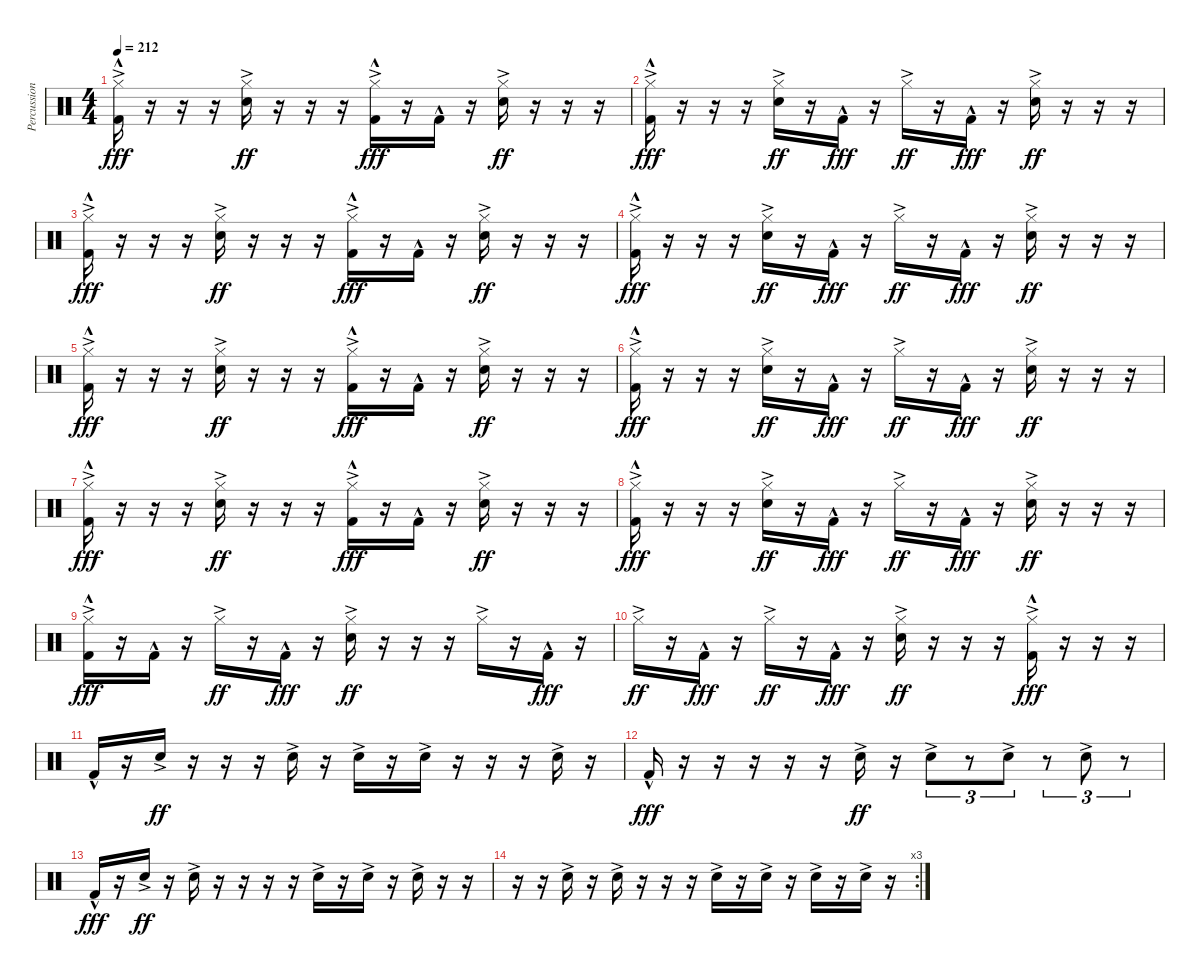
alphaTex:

\track ("Percussion" "Percussion") {instrument percussion}
\staff {score}
\articulation defaults
\ts (4 4)
\tempo 212
\clef neutral
\ks c
("Hi-Hat (closed)"{ac} "Kick (hit) 2"{hac}).16{dy fff} r.16 r.16 r.16 ("Hi-Hat (closed)"{ac} "Snare (hit) 2"{ac}).16{dy ff} r.16 r.16 r.16 ("Hi-Hat (closed)"{ac} "Kick (hit) 2"{hac}).16{dy fff} r.16 "Kick (hit) 2"{hac}.16 r.16 ("Hi-Hat (closed)"{ac} "Snare (hit) 2"{ac}).16{dy ff} r.16 r.16 r.16 |
("Hi-Hat (closed)"{ac} "Kick (hit) 2"{hac}).16{dy fff} r.16 r.16 r.16 ("Hi-Hat (closed)"{ac} "Snare (hit) 2"{ac}).16{dy ff} r.16 "Kick (hit) 2"{hac}.16{dy fff} r.16 "Hi-Hat (closed)"{ac}.16{dy ff} r.16 "Kick (hit) 2"{hac}.16{dy fff} r.16 ("Hi-Hat (closed)"{ac} "Snare (hit) 2"{ac}).16{dy ff} r.16 r.16 r.16 |
("Hi-Hat (closed)"{ac} "Kick (hit) 2"{hac}).16{dy fff} r.16 r.16 r.16 ("Hi-Hat (closed)"{ac} "Snare (hit) 2"{ac}).16{dy ff} r.16 r.16 r.16 ("Hi-Hat (closed)"{ac} "Kick (hit) 2"{hac}).16{dy fff} r.16 "Kick (hit) 2"{hac}.16 r.16 ("Hi-Hat (closed)"{ac} "Snare (hit) 2"{ac}).16{dy ff} r.16 r.16 r.16 |
("Hi-Hat (closed)"{ac} "Kick (hit) 2"{hac}).16{dy fff} r.16 r.16 r.16 ("Hi-Hat (closed)"{ac} "Snare (hit) 2"{ac}).16{dy ff} r.16 "Kick (hit) 2"{hac}.16{dy fff} r.16 "Hi-Hat (closed)"{ac}.16{dy ff} r.16 "Kick (hit) 2"{hac}.16{dy fff} r.16 ("Hi-Hat (closed)"{ac} "Snare (hit) 2"{ac}).16{dy ff} r.16 r.16 r.16 |
("Hi-Hat (closed)"{ac} "Kick (hit) 2"{hac}).16{dy fff} r.16 r.16 r.16 ("Hi-Hat (closed)"{ac} "Snare (hit) 2"{ac}).16{dy ff} r.16 r.16 r.16 ("Hi-Hat (closed)"{ac} "Kick (hit) 2"{hac}).16{dy fff} r.16 "Kick (hit) 2"{hac}.16 r.16 ("Hi-Hat (closed)"{ac} "Snare (hit) 2"{ac}).16{dy ff} r.16 r.16 r.16 |
("Hi-Hat (closed)"{ac} "Kick (hit) 2"{hac}).16{dy fff} r.16 r.16 r.16 ("Hi-Hat (closed)"{ac} "Snare (hit) 2"{ac}).16{dy ff} r.16 "Kick (hit) 2"{hac}.16{dy fff} r.16 "Hi-Hat (closed)"{ac}.16{dy ff} r.16 "Kick (hit) 2"{hac}.16{dy fff} r.16 ("Hi-Hat (closed)"{ac} "Snare (hit) 2"{ac}).16{dy ff} r.16 r.16 r.16 |
("Hi-Hat (closed)"{ac} "Kick (hit) 2"{hac}).16{dy fff} r.16 r.16 r.16 ("Hi-Hat (closed)"{ac} "Snare (hit) 2"{ac}).16{dy ff} r.16 r.16 r.16 ("Hi-Hat (closed)"{ac} "Kick (hit) 2"{hac}).16{dy fff} r.16 "Kick (hit) 2"{hac}.16 r.16 ("Hi-Hat (closed)"{ac} "Snare (hit) 2"{ac}).16{dy ff} r.16 r.16 r.16 |
("Hi-Hat (closed)"{ac} "Kick (hit) 2"{hac}).16{dy fff} r.16 r.16 r.16 ("Hi-Hat (closed)"{ac} "Snare (hit) 2"{ac}).16{dy ff} r.16 "Kick (hit) 2"{hac}.16{dy fff} r.16 "Hi-Hat (closed)"{ac}.16{dy ff} r.16 "Kick (hit) 2"{hac}.16{dy fff} r.16 ("Hi-Hat (closed)"{ac} "Snare (hit) 2"{ac}).16{dy ff} r.16 r.16 r.16 |
("Hi-Hat (closed)"{ac} "Kick (hit) 2"{hac}).16{dy fff} r.16 "Kick (hit) 2"{hac}.16 r.16 "Hi-Hat (closed)"{ac}.16{dy ff} r.16 "Kick (hit) 2"{hac}.16{dy fff} r.16 ("Hi-Hat (closed)"{ac} "Snare (hit) 2"{ac}).16{dy ff} r.16 r.16 r.16 "Hi-Hat (closed)"{ac}.16 r.16 "Kick (hit) 2"{hac}.16{dy fff} r.16 |
"Hi-Hat (closed)"{ac}.16{dy ff} r.16 "Kick (hit) 2"{hac}.16{dy fff} r.16 "Hi-Hat (closed)"{ac}.16{dy ff} r.16 "Kick (hit) 2"{hac}.16{dy fff} r.16 ("Hi-Hat (closed)"{ac} "Snare (hit) 2"{ac}).16{dy ff} r.16 r.16 r.16 ("Hi-Hat (closed)"{ac} "Kick (hit) 2"{hac}).16{dy fff} r.16 r.16 r.16 |
"Kick (hit) 2"{hac}.16 r.16 "Snare (hit) 2"{ac}.16{dy ff} r.16 r.16 r.16 "Snare (hit) 2"{ac}.16 r.16 "Snare (hit) 2"{ac}.16 r.16 "Snare (hit) 2"{ac}.16 r.16 r.16 r.16 "Snare (hit) 2"{ac}.16 r.16 |
"Kick (hit) 2"{hac}.16{dy fff} r.16 r.16 r.16 r.16 r.16 "Snare (hit) 2"{ac}.16{dy ff} r.16 "Snare (hit) 2"{ac}.8{tu (3 2)} r.8{tu (3 2)} "Snare (hit) 2"{ac}.8{tu (3 2)} r.8{tu (3 2)} "Snare (hit) 2"{ac}.8{tu (3 2)} r.8{tu (3 2)} |
"Kick (hit) 2"{hac}.16{dy fff} r.16 "Snare (hit) 2"{ac}.16{dy ff} r.16 "Snare (hit) 2"{ac}.16 r.16 r.16 r.16 r.16 "Snare (hit) 2"{ac}.16 r.16 "Snare (hit) 2"{ac}.16 r.16 "Snare (hit) 2"{ac}.16 r.16 r.16 |
\rc 3
r.16 r.16 "Snare (hit) 2"{ac}.16 r.16 "Snare (hit) 2"{ac}.16 r.16 r.16 r.16 "Snare (hit) 2"{ac}.16 r.16 "Snare (hit) 2"{ac}.16 r.16 "Snare (hit) 2"{ac}.16 r.16 "Snare (hit) 2"{ac}.16 r.16
